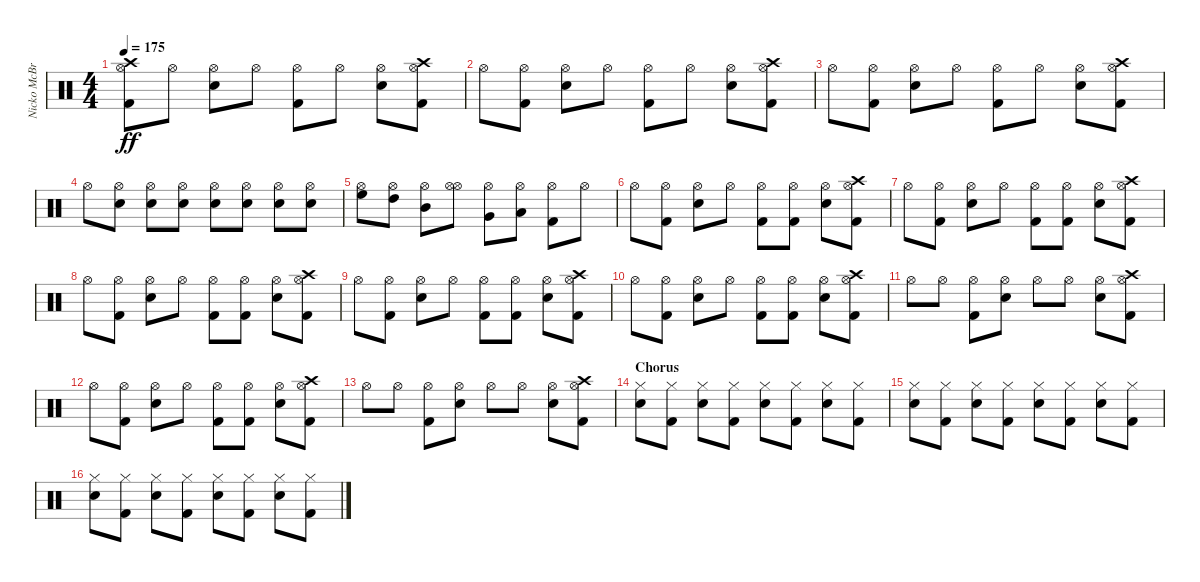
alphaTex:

\track ("Nicko McBrain" "Nicko McBr") {instrument percussion}
\staff {score}
\articulation defaults
\ts (4 4)
\tempo 175
\clef neutral
\ks c
("Kick (hit) 2" "Hi-Hat (open)" "Crash high (hit)").8{dy ff} "Hi-Hat (open)".8 ("Snare (hit) 2" "Hi-Hat (open)").8 "Hi-Hat (open)".8 ("Kick (hit) 2" "Hi-Hat (open)").8 "Hi-Hat (open)".8 ("Snare (hit) 2" "Hi-Hat (open)").8 ("Kick (hit) 2" "Hi-Hat (open)" "Crash high (hit)").8 |
"Hi-Hat (open)".8 ("Kick (hit) 2" "Hi-Hat (open)").8 ("Snare (hit) 2" "Hi-Hat (open)").8 "Hi-Hat (open)".8 ("Kick (hit) 2" "Hi-Hat (open)").8 "Hi-Hat (open)".8 ("Snare (hit) 2" "Hi-Hat (open)").8 ("Kick (hit) 2" "Hi-Hat (open)" "Crash high (hit)").8 |
"Hi-Hat (open)".8 ("Kick (hit) 2" "Hi-Hat (open)").8 ("Snare (hit) 2" "Hi-Hat (open)").8 "Hi-Hat (open)".8 ("Kick (hit) 2" "Hi-Hat (open)").8 "Hi-Hat (open)".8 ("Snare (hit) 2" "Hi-Hat (open)").8 ("Kick (hit) 2" "Hi-Hat (open)" "Crash high (hit)").8 |
"Hi-Hat (open)".8 ("Snare (hit) 2" "Hi-Hat (open)").8 ("Snare (hit) 2" "Hi-Hat (open)").8 ("Snare (hit) 2" "Hi-Hat (open)").8 ("Snare (hit) 2" "Hi-Hat (open)").8 ("Snare (hit) 2" "Hi-Hat (open)").8 ("Snare (hit) 2" "Hi-Hat (open)").8 ("Snare (hit) 2" "Hi-Hat (open)").8 |
("Hi-Hat (open)" "High Floor Tom (hit)").8 ("Hi-Hat (open)" "High Tom (hit)").8 ("Hi-Hat (open)" "Mid Tom (hit)").8 ("Hi-Hat (open)" "Hi-Hat (open)").8 ("Very Low Tom (hit)" "Hi-Hat (open)").8 ("Low Floor Tom (hit)" "Hi-Hat (open)").8 ("Kick (hit) 2" "Hi-Hat (open)").8 "Hi-Hat (open)".8 |
"Hi-Hat (open)".8 ("Kick (hit) 2" "Hi-Hat (open)").8 ("Snare (hit) 2" "Hi-Hat (open)").8 "Hi-Hat (open)".8 ("Kick (hit) 2" "Hi-Hat (open)").8 ("Kick (hit) 2" "Hi-Hat (open)").8 ("Snare (hit) 2" "Hi-Hat (open)").8 ("Kick (hit) 2" "Hi-Hat (open)" "Crash high (hit)").8 |
"Hi-Hat (open)".8 ("Kick (hit) 2" "Hi-Hat (open)").8 ("Snare (hit) 2" "Hi-Hat (open)").8 "Hi-Hat (open)".8 ("Kick (hit) 2" "Hi-Hat (open)").8 ("Kick (hit) 2" "Hi-Hat (open)").8 ("Snare (hit) 2" "Hi-Hat (open)").8 ("Kick (hit) 2" "Hi-Hat (open)" "Crash high (hit)").8 |
"Hi-Hat (open)".8 ("Kick (hit) 2" "Hi-Hat (open)").8 ("Snare (hit) 2" "Hi-Hat (open)").8 "Hi-Hat (open)".8 ("Kick (hit) 2" "Hi-Hat (open)").8 ("Kick (hit) 2" "Hi-Hat (open)").8 ("Snare (hit) 2" "Hi-Hat (open)").8 ("Kick (hit) 2" "Hi-Hat (open)" "Crash high (hit)").8 |
"Hi-Hat (open)".8 ("Kick (hit) 2" "Hi-Hat (open)").8 ("Snare (hit) 2" "Hi-Hat (open)").8 "Hi-Hat (open)".8 ("Kick (hit) 2" "Hi-Hat (open)").8 ("Kick (hit) 2" "Hi-Hat (open)").8 ("Snare (hit) 2" "Hi-Hat (open)").8 ("Kick (hit) 2" "Hi-Hat (open)" "Crash high (hit)").8 |
"Hi-Hat (open)".8 ("Kick (hit) 2" "Hi-Hat (open)").8 ("Snare (hit) 2" "Hi-Hat (open)").8 "Hi-Hat (open)".8 ("Kick (hit) 2" "Hi-Hat (open)").8 ("Kick (hit) 2" "Hi-Hat (open)").8 ("Snare (hit) 2" "Hi-Hat (open)").8 ("Kick (hit) 2" "Hi-Hat (open)" "Crash high (hit)").8 |
"Hi-Hat (open)".8 "Hi-Hat (open)".8 ("Kick (hit) 2" "Hi-Hat (open)").8 ("Snare (hit) 2" "Hi-Hat (open)").8 "Hi-Hat (open)".8 "Hi-Hat (open)".8 ("Snare (hit) 2" "Hi-Hat (open)").8 ("Kick (hit) 2" "Hi-Hat (open)" "Crash high (hit)").8 |
"Hi-Hat (open)".8 ("Kick (hit) 2" "Hi-Hat (open)").8 ("Snare (hit) 2" "Hi-Hat (open)").8 "Hi-Hat (open)".8 ("Kick (hit) 2" "Hi-Hat (open)").8 ("Kick (hit) 2" "Hi-Hat (open)").8 ("Snare (hit) 2" "Hi-Hat (open)").8 ("Kick (hit) 2" "Hi-Hat (open)" "Crash high (hit)").8 |
"Hi-Hat (open)".8 "Hi-Hat (open)".8 ("Kick (hit) 2" "Hi-Hat (open)").8 ("Snare (hit) 2" "Hi-Hat (open)").8 "Hi-Hat (open)".8 "Hi-Hat (open)".8 ("Snare (hit) 2" "Hi-Hat (open)").8 ("Kick (hit) 2" "Hi-Hat (open)" "Crash high (hit)").8 |
\section ("" "Chorus")
("Snare (hit) 2" "Hi-Hat (closed)").8 ("Kick (hit) 2" "Hi-Hat (closed)").8 ("Snare (hit) 2" "Hi-Hat (closed)").8 ("Kick (hit) 2" "Hi-Hat (closed)").8 ("Snare (hit) 2" "Hi-Hat (closed)").8 ("Kick (hit) 2" "Hi-Hat (closed)").8 ("Snare (hit) 2" "Hi-Hat (closed)").8 ("Kick (hit) 2" "Hi-Hat (closed)").8 |
("Snare (hit) 2" "Hi-Hat (closed)").8 ("Kick (hit) 2" "Hi-Hat (closed)").8 ("Snare (hit) 2" "Hi-Hat (closed)").8 ("Kick (hit) 2" "Hi-Hat (closed)").8 ("Snare (hit) 2" "Hi-Hat (closed)").8 ("Kick (hit) 2" "Hi-Hat (closed)").8 ("Snare (hit) 2" "Hi-Hat (closed)").8 ("Kick (hit) 2" "Hi-Hat (closed)").8 |
("Snare (hit) 2" "Hi-Hat (closed)").8 ("Kick (hit) 2" "Hi-Hat (closed)").8 ("Snare (hit) 2" "Hi-Hat (closed)").8 ("Kick (hit) 2" "Hi-Hat (closed)").8 ("Snare (hit) 2" "Hi-Hat (closed)").8 ("Kick (hit) 2" "Hi-Hat (closed)").8 ("Snare (hit) 2" "Hi-Hat (closed)").8 ("Kick (hit) 2" "Hi-Hat (closed)").8
